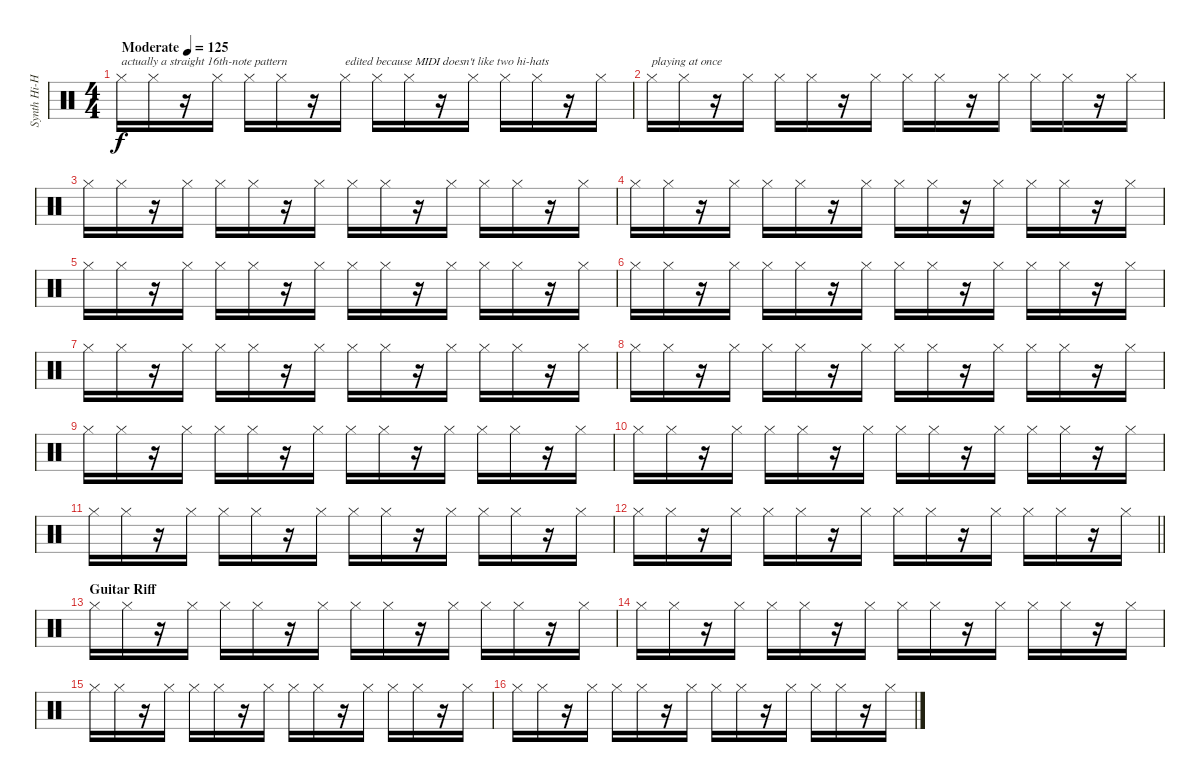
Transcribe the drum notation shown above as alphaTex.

\track ("Synth Hi-Hat (Gillian)" "Synth Hi-H") {instrument percussion}
\staff {score}
\articulation defaults
\ts (4 4)
\tempo (125 "Moderate")
\clef neutral
\ks c "Hi-Hat (closed)".16{txt "actually a straight 16th-note pattern" dy f} "Hi-Hat (closed)".16
r.16 "Hi-Hat (closed)".16 "Hi-Hat (closed)".16 "Hi-Hat (closed)".16 r.16 "Hi-Hat (closed)".16{txt "edited because MIDI doesn't like two hi-hats"} "Hi-Hat (closed)".16 "Hi-Hat (closed)".16 r.16 "Hi-Hat (closed)".16 "Hi-Hat (closed)".16 "Hi-Hat (closed)".16 r.16 "Hi-Hat (closed)".16 |
"Hi-Hat (closed)".16{txt "playing at once"} "Hi-Hat (closed)".16 r.16 "Hi-Hat (closed)".16 "Hi-Hat (closed)".16 "Hi-Hat (closed)".16 r.16 "Hi-Hat (closed)".16 "Hi-Hat (closed)".16 "Hi-Hat (closed)".16 r.16 "Hi-Hat (closed)".16 "Hi-Hat (closed)".16 "Hi-Hat (closed)".16 r.16 "Hi-Hat (closed)".16 |
"Hi-Hat (closed)".16 "Hi-Hat (closed)".16 r.16 "Hi-Hat (closed)".16 "Hi-Hat (closed)".16 "Hi-Hat (closed)".16 r.16 "Hi-Hat (closed)".16 "Hi-Hat (closed)".16 "Hi-Hat (closed)".16 r.16 "Hi-Hat (closed)".16 "Hi-Hat (closed)".16 "Hi-Hat (closed)".16 r.16 "Hi-Hat (closed)".16 |
"Hi-Hat (closed)".16 "Hi-Hat (closed)".16 r.16 "Hi-Hat (closed)".16 "Hi-Hat (closed)".16 "Hi-Hat (closed)".16 r.16 "Hi-Hat (closed)".16 "Hi-Hat (closed)".16 "Hi-Hat (closed)".16 r.16 "Hi-Hat (closed)".16 "Hi-Hat (closed)".16 "Hi-Hat (closed)".16 r.16 "Hi-Hat (closed)".16 |
"Hi-Hat (closed)".16 "Hi-Hat (closed)".16 r.16 "Hi-Hat (closed)".16 "Hi-Hat (closed)".16 "Hi-Hat (closed)".16 r.16 "Hi-Hat (closed)".16 "Hi-Hat (closed)".16 "Hi-Hat (closed)".16 r.16 "Hi-Hat (closed)".16 "Hi-Hat (closed)".16 "Hi-Hat (closed)".16 r.16 "Hi-Hat (closed)".16 |
"Hi-Hat (closed)".16 "Hi-Hat (closed)".16 r.16 "Hi-Hat (closed)".16 "Hi-Hat (closed)".16 "Hi-Hat (closed)".16 r.16 "Hi-Hat (closed)".16 "Hi-Hat (closed)".16 "Hi-Hat (closed)".16 r.16 "Hi-Hat (closed)".16 "Hi-Hat (closed)".16 "Hi-Hat (closed)".16 r.16 "Hi-Hat (closed)".16 |
"Hi-Hat (closed)".16 "Hi-Hat (closed)".16 r.16 "Hi-Hat (closed)".16 "Hi-Hat (closed)".16 "Hi-Hat (closed)".16 r.16 "Hi-Hat (closed)".16 "Hi-Hat (closed)".16 "Hi-Hat (closed)".16 r.16 "Hi-Hat (closed)".16 "Hi-Hat (closed)".16 "Hi-Hat (closed)".16 r.16 "Hi-Hat (closed)".16 |
"Hi-Hat (closed)".16 "Hi-Hat (closed)".16 r.16 "Hi-Hat (closed)".16 "Hi-Hat (closed)".16 "Hi-Hat (closed)".16 r.16 "Hi-Hat (closed)".16 "Hi-Hat (closed)".16 "Hi-Hat (closed)".16 r.16 "Hi-Hat (closed)".16 "Hi-Hat (closed)".16 "Hi-Hat (closed)".16 r.16 "Hi-Hat (closed)".16 |
"Hi-Hat (closed)".16 "Hi-Hat (closed)".16 r.16 "Hi-Hat (closed)".16 "Hi-Hat (closed)".16 "Hi-Hat (closed)".16 r.16 "Hi-Hat (closed)".16 "Hi-Hat (closed)".16 "Hi-Hat (closed)".16 r.16 "Hi-Hat (closed)".16 "Hi-Hat (closed)".16 "Hi-Hat (closed)".16 r.16 "Hi-Hat (closed)".16 |
"Hi-Hat (closed)".16 "Hi-Hat (closed)".16 r.16 "Hi-Hat (closed)".16 "Hi-Hat (closed)".16 "Hi-Hat (closed)".16 r.16 "Hi-Hat (closed)".16 "Hi-Hat (closed)".16 "Hi-Hat (closed)".16 r.16 "Hi-Hat (closed)".16 "Hi-Hat (closed)".16 "Hi-Hat (closed)".16 r.16 "Hi-Hat (closed)".16 |
"Hi-Hat (closed)".16 "Hi-Hat (closed)".16 r.16 "Hi-Hat (closed)".16 "Hi-Hat (closed)".16 "Hi-Hat (closed)".16 r.16 "Hi-Hat (closed)".16 "Hi-Hat (closed)".16 "Hi-Hat (closed)".16 r.16 "Hi-Hat (closed)".16 "Hi-Hat (closed)".16 "Hi-Hat (closed)".16 r.16 "Hi-Hat (closed)".16 |
\barLineRight lightlight "Hi-Hat (closed)".16 "Hi-Hat (closed)".16
r.16 "Hi-Hat (closed)".16 "Hi-Hat (closed)".16 "Hi-Hat (closed)".16 r.16 "Hi-Hat (closed)".16 "Hi-Hat (closed)".16 "Hi-Hat (closed)".16 r.16 "Hi-Hat (closed)".16 "Hi-Hat (closed)".16 "Hi-Hat (closed)".16 r.16 "Hi-Hat (closed)".16 |
\section ("" "Guitar Riff")
"Hi-Hat (closed)".16 "Hi-Hat (closed)".16 r.16 "Hi-Hat (closed)".16 "Hi-Hat (closed)".16 "Hi-Hat (closed)".16 r.16 "Hi-Hat (closed)".16 "Hi-Hat (closed)".16 "Hi-Hat (closed)".16 r.16 "Hi-Hat (closed)".16 "Hi-Hat (closed)".16 "Hi-Hat (closed)".16 r.16 "Hi-Hat (closed)".16 |
"Hi-Hat (closed)".16 "Hi-Hat (closed)".16 r.16 "Hi-Hat (closed)".16 "Hi-Hat (closed)".16 "Hi-Hat (closed)".16 r.16 "Hi-Hat (closed)".16 "Hi-Hat (closed)".16 "Hi-Hat (closed)".16 r.16 "Hi-Hat (closed)".16 "Hi-Hat (closed)".16 "Hi-Hat (closed)".16 r.16 "Hi-Hat (closed)".16 |
"Hi-Hat (closed)".16 "Hi-Hat (closed)".16 r.16 "Hi-Hat (closed)".16 "Hi-Hat (closed)".16 "Hi-Hat (closed)".16 r.16 "Hi-Hat (closed)".16 "Hi-Hat (closed)".16 "Hi-Hat (closed)".16 r.16 "Hi-Hat (closed)".16 "Hi-Hat (closed)".16 "Hi-Hat (closed)".16 r.16 "Hi-Hat (closed)".16 |
"Hi-Hat (closed)".16 "Hi-Hat (closed)".16 r.16 "Hi-Hat (closed)".16 "Hi-Hat (closed)".16 "Hi-Hat (closed)".16 r.16 "Hi-Hat (closed)".16 "Hi-Hat (closed)".16 "Hi-Hat (closed)".16 r.16 "Hi-Hat (closed)".16 "Hi-Hat (closed)".16 "Hi-Hat (closed)".16 r.16 "Hi-Hat (closed)".16
